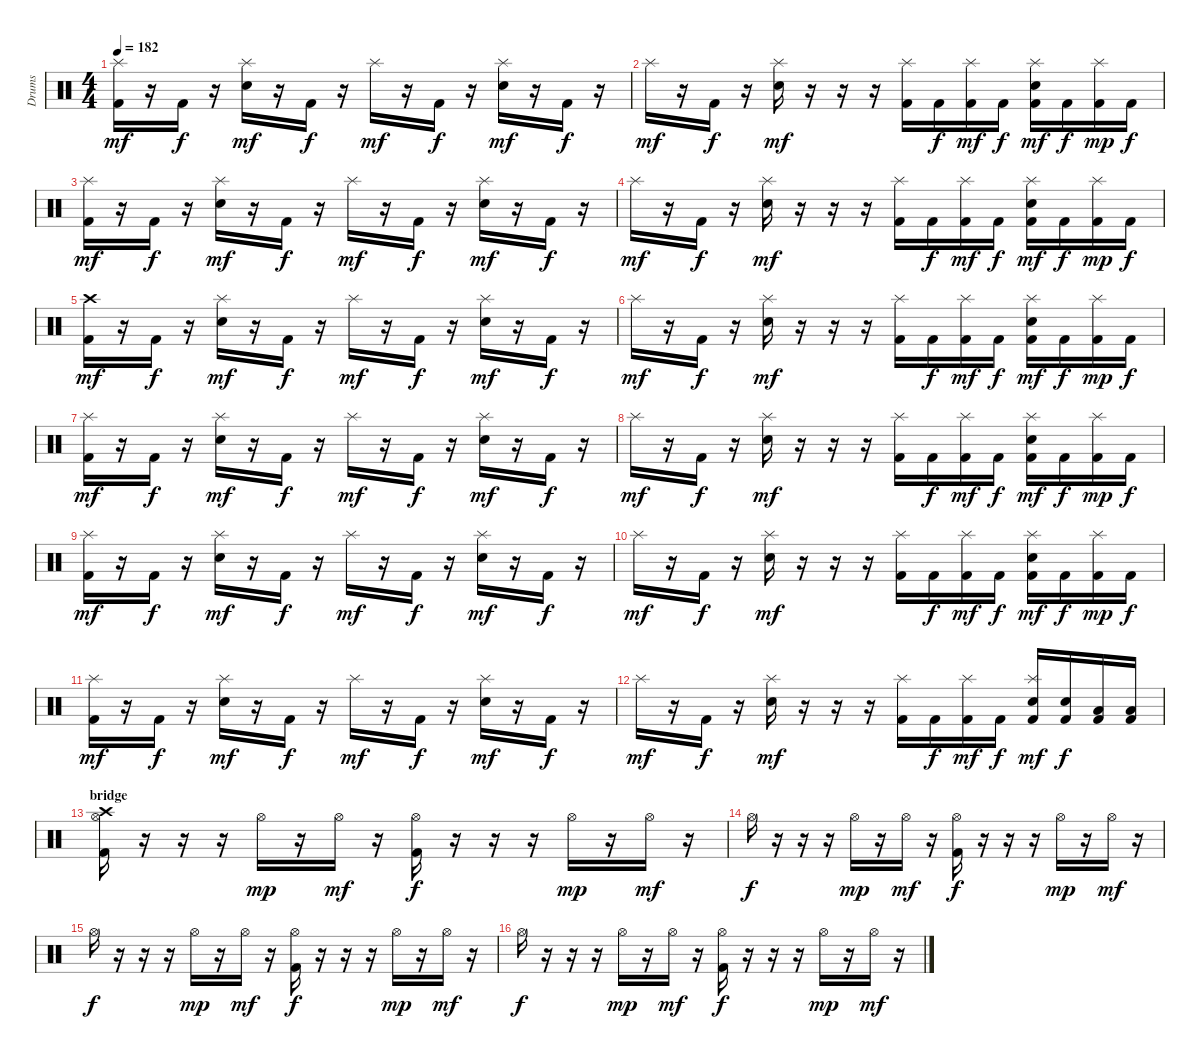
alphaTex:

\track ("Drums" "Drums") {instrument percussion}
\staff {score}
\articulation defaults
\ts (4 4)
\tempo 182
\clef neutral
\ks c
("Kick (hit) 2" "Splash (hit)").16{dy mf} r.16 "Kick (hit) 2".16{dy f} r.16 ("Snare (hit) 2" "Splash (hit)").16{dy mf} r.16 "Kick (hit) 2".16{dy f} r.16 "Splash (hit)".16{dy mf} r.16 "Kick (hit) 2".16{dy f} r.16 ("Snare (hit) 2" "Splash (hit)").16{dy mf} r.16 "Kick (hit) 2".16{dy f} r.16 |
"Splash (hit)".16{dy mf} r.16 "Kick (hit) 2".16{dy f} r.16 ("Snare (hit) 2" "Splash (hit)").16{dy mf} r.16 r.16 r.16 ("Kick (hit) 2" "Splash (hit)").16 "Kick (hit) 2".16{dy f} ("Kick (hit) 2" "Splash (hit)").16{dy mf} "Kick (hit) 2".16{dy f} ("Kick (hit) 2" "Snare (hit) 2" "Splash (hit)").16{dy mf} "Kick (hit) 2".16{dy f} ("Kick (hit) 2" "Splash (hit)").16{dy mp} "Kick (hit) 2".16{dy f} |
("Kick (hit) 2" "Splash (hit)").16{dy mf} r.16 "Kick (hit) 2".16{dy f} r.16 ("Snare (hit) 2" "Splash (hit)").16{dy mf} r.16 "Kick (hit) 2".16{dy f} r.16 "Splash (hit)".16{dy mf} r.16 "Kick (hit) 2".16{dy f} r.16 ("Snare (hit) 2" "Splash (hit)").16{dy mf} r.16 "Kick (hit) 2".16{dy f} r.16 |
"Splash (hit)".16{dy mf} r.16 "Kick (hit) 2".16{dy f} r.16 ("Snare (hit) 2" "Splash (hit)").16{dy mf} r.16 r.16 r.16 ("Kick (hit) 2" "Splash (hit)").16 "Kick (hit) 2".16{dy f} ("Kick (hit) 2" "Splash (hit)").16{dy mf} "Kick (hit) 2".16{dy f} ("Kick (hit) 2" "Snare (hit) 2" "Splash (hit)").16{dy mf} "Kick (hit) 2".16{dy f} ("Kick (hit) 2" "Splash (hit)").16{dy mp} "Kick (hit) 2".16{dy f} |
("Kick (hit) 2" "Crash high (hit)").16{dy mf} r.16 "Kick (hit) 2".16{dy f} r.16 ("Snare (hit) 2" "Splash (hit)").16{dy mf} r.16 "Kick (hit) 2".16{dy f} r.16 "Splash (hit)".16{dy mf} r.16 "Kick (hit) 2".16{dy f} r.16 ("Snare (hit) 2" "Splash (hit)").16{dy mf} r.16 "Kick (hit) 2".16{dy f} r.16 |
"Splash (hit)".16{dy mf} r.16 "Kick (hit) 2".16{dy f} r.16 ("Snare (hit) 2" "Splash (hit)").16{dy mf} r.16 r.16 r.16 ("Kick (hit) 2" "Splash (hit)").16 "Kick (hit) 2".16{dy f} ("Kick (hit) 2" "Splash (hit)").16{dy mf} "Kick (hit) 2".16{dy f} ("Kick (hit) 2" "Snare (hit) 2" "Splash (hit)").16{dy mf} "Kick (hit) 2".16{dy f} ("Kick (hit) 2" "Splash (hit)").16{dy mp} "Kick (hit) 2".16{dy f} |
("Kick (hit) 2" "Splash (hit)").16{dy mf} r.16 "Kick (hit) 2".16{dy f} r.16 ("Snare (hit) 2" "Splash (hit)").16{dy mf} r.16 "Kick (hit) 2".16{dy f} r.16 "Splash (hit)".16{dy mf} r.16 "Kick (hit) 2".16{dy f} r.16 ("Snare (hit) 2" "Splash (hit)").16{dy mf} r.16 "Kick (hit) 2".16{dy f} r.16 |
"Splash (hit)".16{dy mf} r.16 "Kick (hit) 2".16{dy f} r.16 ("Snare (hit) 2" "Splash (hit)").16{dy mf} r.16 r.16 r.16 ("Kick (hit) 2" "Splash (hit)").16 "Kick (hit) 2".16{dy f} ("Kick (hit) 2" "Splash (hit)").16{dy mf} "Kick (hit) 2".16{dy f} ("Kick (hit) 2" "Snare (hit) 2" "Splash (hit)").16{dy mf} "Kick (hit) 2".16{dy f} ("Kick (hit) 2" "Splash (hit)").16{dy mp} "Kick (hit) 2".16{dy f} |
("Kick (hit) 2" "Splash (hit)").16{dy mf} r.16 "Kick (hit) 2".16{dy f} r.16 ("Snare (hit) 2" "Splash (hit)").16{dy mf} r.16 "Kick (hit) 2".16{dy f} r.16 "Splash (hit)".16{dy mf} r.16 "Kick (hit) 2".16{dy f} r.16 ("Snare (hit) 2" "Splash (hit)").16{dy mf} r.16 "Kick (hit) 2".16{dy f} r.16 |
"Splash (hit)".16{dy mf} r.16 "Kick (hit) 2".16{dy f} r.16 ("Snare (hit) 2" "Splash (hit)").16{dy mf} r.16 r.16 r.16 ("Kick (hit) 2" "Splash (hit)").16 "Kick (hit) 2".16{dy f} ("Kick (hit) 2" "Splash (hit)").16{dy mf} "Kick (hit) 2".16{dy f} ("Kick (hit) 2" "Snare (hit) 2" "Splash (hit)").16{dy mf} "Kick (hit) 2".16{dy f} ("Kick (hit) 2" "Splash (hit)").16{dy mp} "Kick (hit) 2".16{dy f} |
("Kick (hit) 2" "Splash (hit)").16{dy mf} r.16 "Kick (hit) 2".16{dy f} r.16 ("Snare (hit) 2" "Splash (hit)").16{dy mf} r.16 "Kick (hit) 2".16{dy f} r.16 "Splash (hit)".16{dy mf} r.16 "Kick (hit) 2".16{dy f} r.16 ("Snare (hit) 2" "Splash (hit)").16{dy mf} r.16 "Kick (hit) 2".16{dy f} r.16 |
"Splash (hit)".16{dy mf} r.16 "Kick (hit) 2".16{dy f} r.16 ("Snare (hit) 2" "Splash (hit)").16{dy mf} r.16 r.16 r.16 ("Kick (hit) 2" "Splash (hit)").16 "Kick (hit) 2".16{dy f} ("Kick (hit) 2" "Splash (hit)").16{dy mf} "Kick (hit) 2".16{dy f} ("Kick (hit) 2" "Snare (hit) 2" "Splash (hit)").16{dy mf} ("Kick (hit) 2" "Snare (hit) 2").16{dy f} ("Kick (hit) 2" "Low Tom (hit)").16 ("Kick (hit) 2" "Low Tom (hit)").16 |
\section ("" "bridge")
("Kick (hit) 2" "Hi-Hat (open)" "Crash high (hit)").16 r.16 r.16 r.16 "Hi-Hat (open)".16{dy mp} r.16 "Hi-Hat (open)".16{dy mf} r.16 ("Kick (hit) 2" "Hi-Hat (open)").16{dy f} r.16 r.16 r.16 "Hi-Hat (open)".16{dy mp} r.16 "Hi-Hat (open)".16{dy mf} r.16 |
"Hi-Hat (open)".16{dy f} r.16 r.16 r.16 "Hi-Hat (open)".16{dy mp} r.16 "Hi-Hat (open)".16{dy mf} r.16 ("Kick (hit) 2" "Hi-Hat (open)").16{dy f} r.16 r.16 r.16 "Hi-Hat (open)".16{dy mp} r.16 "Hi-Hat (open)".16{dy mf} r.16 |
"Hi-Hat (open)".16{dy f} r.16 r.16 r.16 "Hi-Hat (open)".16{dy mp} r.16 "Hi-Hat (open)".16{dy mf} r.16 ("Kick (hit) 2" "Hi-Hat (open)").16{dy f} r.16 r.16 r.16 "Hi-Hat (open)".16{dy mp} r.16 "Hi-Hat (open)".16{dy mf} r.16 |
"Hi-Hat (open)".16{dy f} r.16 r.16 r.16 "Hi-Hat (open)".16{dy mp} r.16 "Hi-Hat (open)".16{dy mf} r.16 ("Kick (hit) 2" "Hi-Hat (open)").16{dy f} r.16 r.16 r.16 "Hi-Hat (open)".16{dy mp} r.16 "Hi-Hat (open)".16{dy mf} r.16
